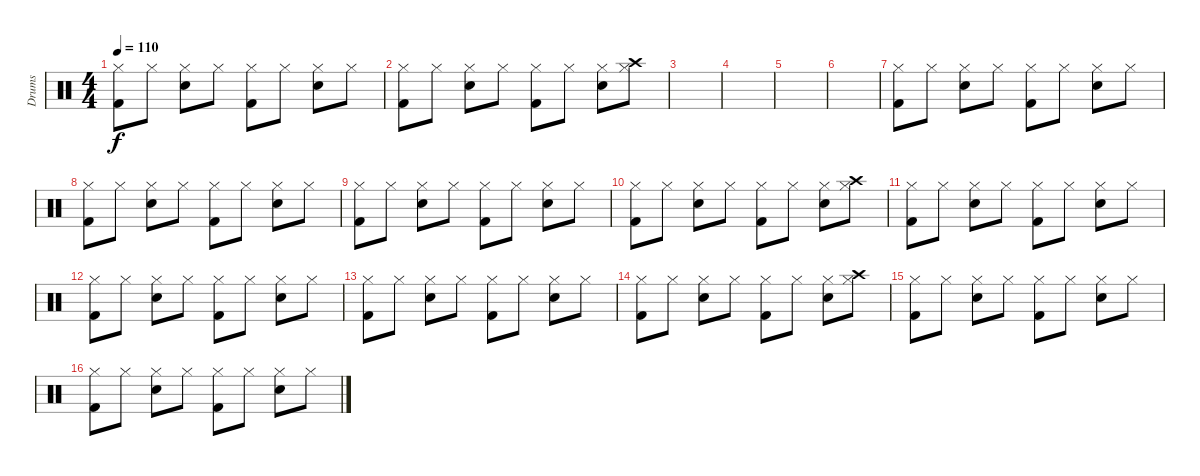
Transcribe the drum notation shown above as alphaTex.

\track ("Drums" "Drums") {instrument percussion}
\staff {score}
\articulation defaults
\ts (4 4)
\tempo 110
\clef neutral
\ks c
("Hi-Hat (closed)" "Kick (hit) 2").8{dy f} "Hi-Hat (closed)".8 ("Hi-Hat (closed)" "Snare (hit) 2").8 "Hi-Hat (closed)".8 ("Hi-Hat (closed)" "Kick (hit) 2").8 "Hi-Hat (closed)".8 ("Hi-Hat (closed)" "Snare (hit) 2").8 "Hi-Hat (closed)".8 |
("Hi-Hat (closed)" "Kick (hit) 2").8 "Hi-Hat (closed)".8 ("Hi-Hat (closed)" "Snare (hit) 2").8 "Hi-Hat (closed)".8 ("Hi-Hat (closed)" "Kick (hit) 2").8 "Hi-Hat (closed)".8 ("Hi-Hat (closed)" "Snare (hit) 2").8 ("Hi-Hat (closed)" "Crash high (hit)").8 |
|
|
|
|
("Hi-Hat (closed)" "Kick (hit) 2").8 "Hi-Hat (closed)".8 ("Hi-Hat (closed)" "Snare (hit) 2").8 "Hi-Hat (closed)".8 ("Hi-Hat (closed)" "Kick (hit) 2").8 "Hi-Hat (closed)".8 ("Hi-Hat (closed)" "Snare (hit) 2").8 "Hi-Hat (closed)".8 |
("Hi-Hat (closed)" "Kick (hit) 2").8 "Hi-Hat (closed)".8 ("Hi-Hat (closed)" "Snare (hit) 2").8 "Hi-Hat (closed)".8 ("Hi-Hat (closed)" "Kick (hit) 2").8 "Hi-Hat (closed)".8 ("Hi-Hat (closed)" "Snare (hit) 2").8 "Hi-Hat (closed)".8 |
("Hi-Hat (closed)" "Kick (hit) 2").8 "Hi-Hat (closed)".8 ("Hi-Hat (closed)" "Snare (hit) 2").8 "Hi-Hat (closed)".8 ("Hi-Hat (closed)" "Kick (hit) 2").8 "Hi-Hat (closed)".8 ("Hi-Hat (closed)" "Snare (hit) 2").8 "Hi-Hat (closed)".8 |
("Hi-Hat (closed)" "Kick (hit) 2").8 "Hi-Hat (closed)".8 ("Hi-Hat (closed)" "Snare (hit) 2").8 "Hi-Hat (closed)".8 ("Hi-Hat (closed)" "Kick (hit) 2").8 "Hi-Hat (closed)".8 ("Hi-Hat (closed)" "Snare (hit) 2").8 ("Hi-Hat (closed)" "Crash high (hit)").8 |
("Hi-Hat (closed)" "Kick (hit) 2").8 "Hi-Hat (closed)".8 ("Hi-Hat (closed)" "Snare (hit) 2").8 "Hi-Hat (closed)".8 ("Hi-Hat (closed)" "Kick (hit) 2").8 "Hi-Hat (closed)".8 ("Hi-Hat (closed)" "Snare (hit) 2").8 "Hi-Hat (closed)".8 |
("Hi-Hat (closed)" "Kick (hit) 2").8 "Hi-Hat (closed)".8 ("Hi-Hat (closed)" "Snare (hit) 2").8 "Hi-Hat (closed)".8 ("Hi-Hat (closed)" "Kick (hit) 2").8 "Hi-Hat (closed)".8 ("Hi-Hat (closed)" "Snare (hit) 2").8 "Hi-Hat (closed)".8 |
("Hi-Hat (closed)" "Kick (hit) 2").8 "Hi-Hat (closed)".8 ("Hi-Hat (closed)" "Snare (hit) 2").8 "Hi-Hat (closed)".8 ("Hi-Hat (closed)" "Kick (hit) 2").8 "Hi-Hat (closed)".8 ("Hi-Hat (closed)" "Snare (hit) 2").8 "Hi-Hat (closed)".8 |
("Hi-Hat (closed)" "Kick (hit) 2").8 "Hi-Hat (closed)".8 ("Hi-Hat (closed)" "Snare (hit) 2").8 "Hi-Hat (closed)".8 ("Hi-Hat (closed)" "Kick (hit) 2").8 "Hi-Hat (closed)".8 ("Hi-Hat (closed)" "Snare (hit) 2").8 ("Hi-Hat (closed)" "Crash high (hit)").8 |
("Hi-Hat (closed)" "Kick (hit) 2").8 "Hi-Hat (closed)".8 ("Hi-Hat (closed)" "Snare (hit) 2").8 "Hi-Hat (closed)".8 ("Hi-Hat (closed)" "Kick (hit) 2").8 "Hi-Hat (closed)".8 ("Hi-Hat (closed)" "Snare (hit) 2").8 "Hi-Hat (closed)".8 |
("Hi-Hat (closed)" "Kick (hit) 2").8 "Hi-Hat (closed)".8 ("Hi-Hat (closed)" "Snare (hit) 2").8 "Hi-Hat (closed)".8 ("Hi-Hat (closed)" "Kick (hit) 2").8 "Hi-Hat (closed)".8 ("Hi-Hat (closed)" "Snare (hit) 2").8 "Hi-Hat (closed)".8
